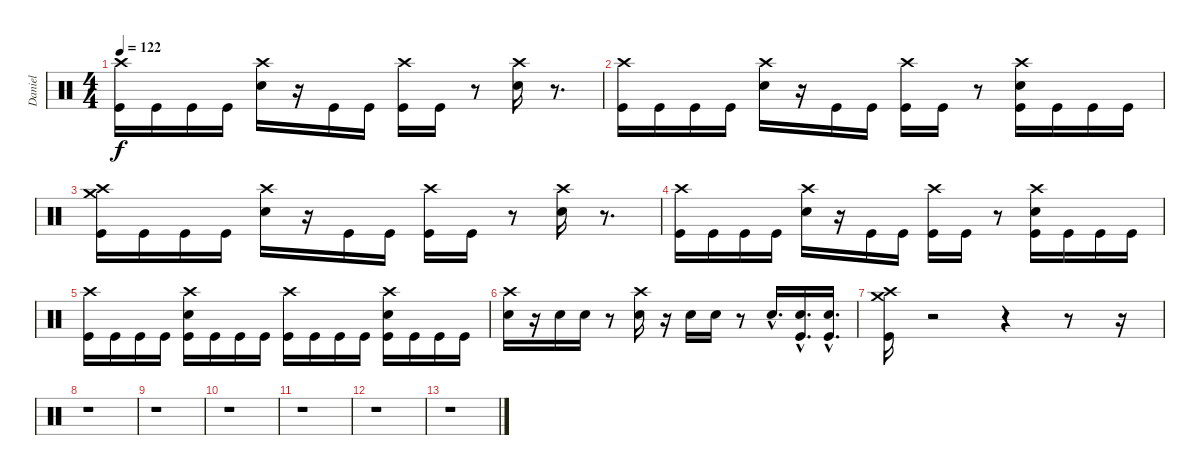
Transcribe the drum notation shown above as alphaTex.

\track ("Daniel" "Daniel") {instrument percussion}
\staff {score}
\articulation defaults
\ts (4 4)
\tempo 122
\clef neutral
\ks c
("Crash high (hit)" "Kick (hit)").16{dy f} "Kick (hit)".16 "Kick (hit)".16 "Kick (hit)".16 ("Electric Snare (hit)" "Crash high (hit)").16 r.16 "Kick (hit)".16 "Kick (hit)".16 ("Crash high (hit)" "Kick (hit)").16 "Kick (hit)".16 r.8 ("Electric Snare (hit)" "Crash high (hit)").16 r.8{d} |
("Crash high (hit)" "Kick (hit)").16 "Kick (hit)".16 "Kick (hit)".16 "Kick (hit)".16 ("Electric Snare (hit)" "Crash high (hit)").16 r.16 "Kick (hit)".16 "Kick (hit)".16 ("Crash high (hit)" "Kick (hit)").16 "Kick (hit)".16 r.8 ("Electric Snare (hit)" "Crash high (hit)" "Kick (hit)").16 "Kick (hit)".16 "Kick (hit)".16 "Kick (hit)".16 |
("Crash high (hit)" "Crash medium (hit)" "Kick (hit)").16 "Kick (hit)".16 "Kick (hit)".16 "Kick (hit)".16 ("Crash high (hit)" "Electric Snare (hit)").16 r.16 "Kick (hit)".16 "Kick (hit)".16 ("Crash high (hit)" "Kick (hit)").16 "Kick (hit)".16 r.8 ("Crash high (hit)" "Electric Snare (hit)").16 r.8{d} |
("Crash high (hit)" "Kick (hit)").16 "Kick (hit)".16 "Kick (hit)".16 "Kick (hit)".16 ("Electric Snare (hit)" "Crash high (hit)").16 r.16 "Kick (hit)".16 "Kick (hit)".16 ("Crash high (hit)" "Kick (hit)").16 "Kick (hit)".16 r.8 ("Electric Snare (hit)" "Crash high (hit)" "Kick (hit)").16 "Kick (hit)".16 "Kick (hit)".16 "Kick (hit)".16 |
("Crash high (hit)" "Kick (hit)").16 "Kick (hit)".16 "Kick (hit)".16 "Kick (hit)".16 ("Kick (hit)" "Electric Snare (hit)" "Crash high (hit)").16 "Kick (hit)".16 "Kick (hit)".16 "Kick (hit)".16 ("Crash high (hit)" "Kick (hit)").16 "Kick (hit)".16 "Kick (hit)".16 "Kick (hit)".16 ("Kick (hit)" "Electric Snare (hit)" "Crash high (hit)").16 "Kick (hit)".16 "Kick (hit)".16 "Kick (hit)".16 |
("Electric Snare (hit)" "Crash high (hit)").16 r.16 "Electric Snare (hit)".16 "Snare (hit) 2".16 r.8 ("Electric Snare (hit)" "Crash high (hit)").16 r.16 "Electric Snare (hit)".16 "Snare (hit) 2".16 r.8 "Electric Snare (hit)"{hac}.16{d} ("Kick (hit)"{hac} "Snare (hit) 2"{hac}).16{d} ("Kick (hit)"{hac} "Snare (hit) 2"{hac}).16{d} |
("Crash medium (hit)" "Crash high (hit)" "Kick (hit)").16 r.2 r.4 r.8 r.16 |
r.1 |
r.1 |
r.1 |
r.1 |
r.1 |
r.1
